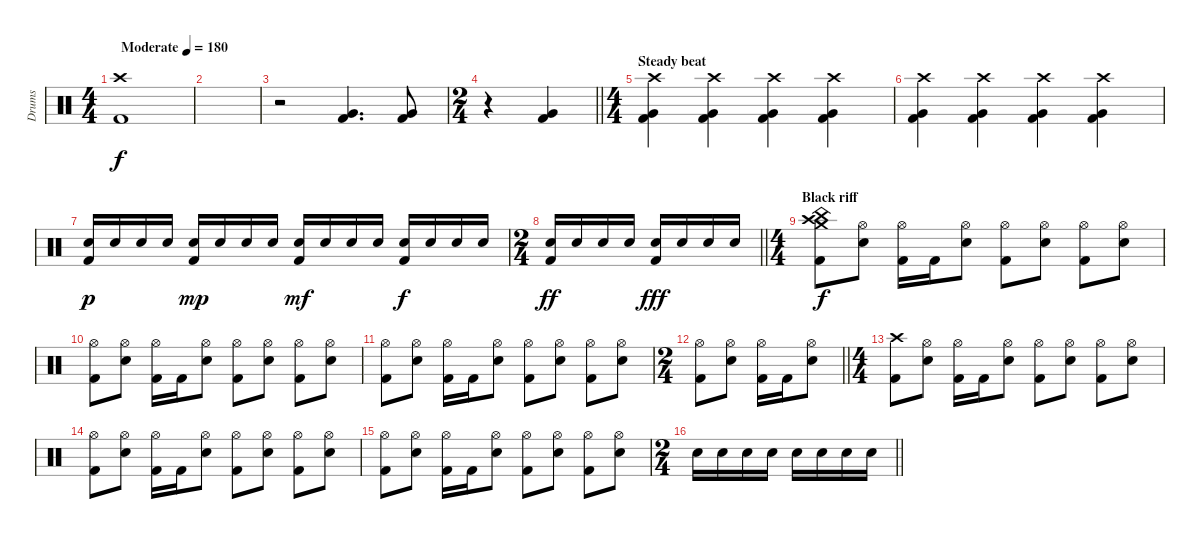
\track ("Drums" "Drums") {instrument percussion}
\staff {score}
\articulation defaults
\ts (4 4)
\tempo (180 "Moderate")
\clef neutral
\ks c
("Crash high (hit)" "Kick (hit) 2").1{dy f} |
|
r.2 ("Very Low Tom (hit)" "Kick (hit) 2").4{d} ("Very Low Tom (hit)" "Kick (hit) 2").8 |
\ts (2 4)
\barLineRight lightlight
r.4 ("Very Low Tom (hit)" "Kick (hit) 2").4 |
\ts (4 4)
\section ("" "Steady beat")
("Crash high (hit)" "Very Low Tom (hit)" "Kick (hit) 2").4 ("Crash high (hit)" "Very Low Tom (hit)" "Kick (hit) 2").4 ("Crash high (hit)" "Very Low Tom (hit)" "Kick (hit) 2").4 ("Crash high (hit)" "Very Low Tom (hit)" "Kick (hit) 2").4 |
("Crash high (hit)" "Very Low Tom (hit)" "Kick (hit) 2").4 ("Crash high (hit)" "Very Low Tom (hit)" "Kick (hit) 2").4 ("Crash high (hit)" "Very Low Tom (hit)" "Kick (hit) 2").4 ("Crash high (hit)" "Very Low Tom (hit)" "Kick (hit) 2").4 |
("Snare (hit) 2" "Kick (hit) 2").16{dy p} "Snare (hit) 2".16 "Snare (hit) 2".16 "Snare (hit) 2".16 ("Snare (hit) 2" "Kick (hit) 2").16{dy mp} "Snare (hit) 2".16 "Snare (hit) 2".16 "Snare (hit) 2".16 ("Snare (hit) 2" "Kick (hit) 2").16{dy mf} "Snare (hit) 2".16 "Snare (hit) 2".16 "Snare (hit) 2".16 ("Snare (hit) 2" "Kick (hit) 2").16{dy f} "Snare (hit) 2".16 "Snare (hit) 2".16 "Snare (hit) 2".16 |
\ts (2 4)
\barLineRight lightlight
("Snare (hit) 2" "Kick (hit) 2").16{dy ff} "Snare (hit) 2".16 "Snare (hit) 2".16 "Snare (hit) 2".16 ("Snare (hit) 2" "Kick (hit) 2").16{dy fff} "Snare (hit) 2".16 "Snare (hit) 2".16 "Snare (hit) 2".16 |
\ts (4 4)
\section ("" "Black riff")
("Crash medium (hit)" "Crash high (hit)" "China (hit)" "Kick (hit) 2").8{dy f} ("Hi-Hat (open)" "Snare (hit) 2").8 ("Hi-Hat (open)" "Kick (hit) 2").16 "Kick (hit) 2".16 ("Hi-Hat (open)" "Snare (hit) 2").8 ("Hi-Hat (open)" "Kick (hit) 2").8 ("Hi-Hat (open)" "Snare (hit) 2").8 ("Hi-Hat (open)" "Kick (hit) 2").8 ("Hi-Hat (open)" "Snare (hit) 2").8 |
("Hi-Hat (open)" "Kick (hit) 2").8 ("Hi-Hat (open)" "Snare (hit) 2").8 ("Hi-Hat (open)" "Kick (hit) 2").16 "Kick (hit) 2".16 ("Hi-Hat (open)" "Snare (hit) 2").8 ("Hi-Hat (open)" "Kick (hit) 2").8 ("Hi-Hat (open)" "Snare (hit) 2").8 ("Hi-Hat (open)" "Kick (hit) 2").8 ("Hi-Hat (open)" "Snare (hit) 2").8 |
("Hi-Hat (open)" "Kick (hit) 2").8 ("Hi-Hat (open)" "Snare (hit) 2").8 ("Hi-Hat (open)" "Kick (hit) 2").16 "Kick (hit) 2".16 ("Hi-Hat (open)" "Snare (hit) 2").8 ("Hi-Hat (open)" "Kick (hit) 2").8 ("Hi-Hat (open)" "Snare (hit) 2").8 ("Hi-Hat (open)" "Kick (hit) 2").8 ("Hi-Hat (open)" "Snare (hit) 2").8 |
\ts (2 4)
\barLineRight lightlight
("Hi-Hat (open)" "Kick (hit) 2").8 ("Hi-Hat (open)" "Snare (hit) 2").8 ("Hi-Hat (open)" "Kick (hit) 2").16 "Kick (hit) 2".16 ("Hi-Hat (open)" "Snare (hit) 2").8 |
\ts (4 4)
("Crash high (hit)" "Kick (hit) 2").8 ("Hi-Hat (open)" "Snare (hit) 2").8 ("Hi-Hat (open)" "Kick (hit) 2").16 "Kick (hit) 2".16 ("Hi-Hat (open)" "Snare (hit) 2").8 ("Hi-Hat (open)" "Kick (hit) 2").8 ("Hi-Hat (open)" "Snare (hit) 2").8 ("Hi-Hat (open)" "Kick (hit) 2").8 ("Hi-Hat (open)" "Snare (hit) 2").8 |
("Hi-Hat (open)" "Kick (hit) 2").8 ("Hi-Hat (open)" "Snare (hit) 2").8 ("Hi-Hat (open)" "Kick (hit) 2").16 "Kick (hit) 2".16 ("Hi-Hat (open)" "Snare (hit) 2").8 ("Hi-Hat (open)" "Kick (hit) 2").8 ("Hi-Hat (open)" "Snare (hit) 2").8 ("Hi-Hat (open)" "Kick (hit) 2").8 ("Hi-Hat (open)" "Snare (hit) 2").8 |
("Hi-Hat (open)" "Kick (hit) 2").8 ("Hi-Hat (open)" "Snare (hit) 2").8 ("Hi-Hat (open)" "Kick (hit) 2").16 "Kick (hit) 2".16 ("Hi-Hat (open)" "Snare (hit) 2").8 ("Hi-Hat (open)" "Kick (hit) 2").8 ("Hi-Hat (open)" "Snare (hit) 2").8 ("Hi-Hat (open)" "Kick (hit) 2").8 ("Hi-Hat (open)" "Snare (hit) 2").8 |
\ts (2 4)
\barLineRight lightlight "Snare (hit) 2".16 "Snare (hit) 2".16 "Snare (hit) 2".16 "Snare (hit) 2".16 "Snare (hit) 2".16 "Snare (hit) 2".16 "Snare (hit) 2".16 "Snare (hit) 2".16
